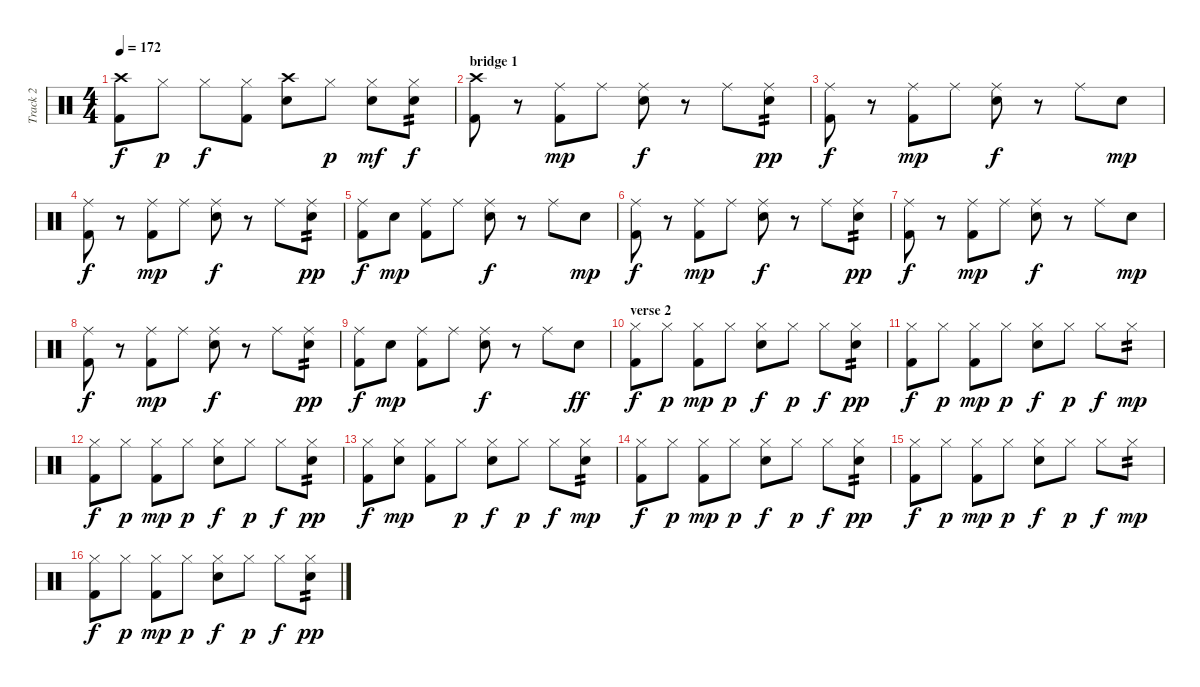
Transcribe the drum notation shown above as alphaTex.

\track ("Track 2" "Track 2") {instrument percussion}
\staff {score}
\articulation defaults
\ts (4 4)
\tempo 172
\clef neutral
\ks c
("Crash high (hit)" "Kick (hit) 2").8{dy f} "Hi-Hat (closed)".8{dy p} "Hi-Hat (closed)".8{dy f} ("Hi-Hat (closed)" "Kick (hit) 2").8 ("Crash high (hit)" "Snare (hit) 2").8 "Hi-Hat (closed)".8{dy p} ("Hi-Hat (closed)" "Snare (hit) 2").8{dy mf} ("Hi-Hat (closed)" "Snare (hit) 2").8{tp 2 dy f} |
\section ("" "bridge 1")
("Crash high (hit)" "Kick (hit) 2").8 r.8 ("Ride (middle)" "Kick (hit) 2").8{dy mp} "Ride (middle)".8 ("Ride (middle)" "Snare (hit) 2").8{dy f} r.8 "Ride (middle)".8 ("Ride (middle)" "Snare (hit) 2").8{tp 2 dy pp} |
("Ride (middle)" "Kick (hit) 2").8{dy f} r.8 ("Ride (middle)" "Kick (hit) 2").8{dy mp} "Ride (middle)".8 ("Ride (middle)" "Snare (hit) 2").8{dy f} r.8 "Ride (middle)".8 "Snare (hit) 2".8{dy mp} |
("Ride (middle)" "Kick (hit) 2").8{dy f} r.8 ("Ride (middle)" "Kick (hit) 2").8{dy mp} "Ride (middle)".8 ("Ride (middle)" "Snare (hit) 2").8{dy f} r.8 "Ride (middle)".8 ("Ride (middle)" "Snare (hit) 2").8{tp 2 dy pp} |
("Ride (middle)" "Kick (hit) 2").8{dy f} "Snare (hit) 2".8{dy mp} ("Ride (middle)" "Kick (hit) 2").8 "Ride (middle)".8 ("Ride (middle)" "Snare (hit) 2").8{dy f} r.8 "Ride (middle)".8 "Snare (hit) 2".8{dy mp} |
("Ride (middle)" "Kick (hit) 2").8{dy f} r.8 ("Ride (middle)" "Kick (hit) 2").8{dy mp} "Ride (middle)".8 ("Ride (middle)" "Snare (hit) 2").8{dy f} r.8 "Ride (middle)".8 ("Ride (middle)" "Snare (hit) 2").8{tp 2 dy pp} |
("Ride (middle)" "Kick (hit) 2").8{dy f} r.8 ("Ride (middle)" "Kick (hit) 2").8{dy mp} "Ride (middle)".8 ("Ride (middle)" "Snare (hit) 2").8{dy f} r.8 "Ride (middle)".8 "Snare (hit) 2".8{dy mp} |
("Ride (middle)" "Kick (hit) 2").8{dy f} r.8 ("Ride (middle)" "Kick (hit) 2").8{dy mp} "Ride (middle)".8 ("Ride (middle)" "Snare (hit) 2").8{dy f} r.8 "Ride (middle)".8 ("Ride (middle)" "Snare (hit) 2").8{tp 2 dy pp} |
("Ride (middle)" "Kick (hit) 2").8{dy f} "Snare (hit) 2".8{dy mp} ("Ride (middle)" "Kick (hit) 2").8 "Ride (middle)".8 ("Ride (middle)" "Snare (hit) 2").8{dy f} r.8 "Ride (middle)".8 "Snare (hit) 2".8{dy ff} |
\section ("" "verse 2")
("Hi-Hat (closed)" "Kick (hit) 2").8{dy f} "Hi-Hat (closed)".8{dy p} ("Hi-Hat (closed)" "Kick (hit) 2").8{dy mp} "Hi-Hat (closed)".8{dy p} ("Hi-Hat (closed)" "Snare (hit) 2").8{dy f} "Hi-Hat (closed)".8{dy p} "Hi-Hat (closed)".8{dy f} ("Hi-Hat (closed)" "Snare (hit) 2").8{tp 2 dy pp} |
("Hi-Hat (closed)" "Kick (hit) 2").8{dy f} "Hi-Hat (closed)".8{dy p} ("Hi-Hat (closed)" "Kick (hit) 2").8{dy mp} "Hi-Hat (closed)".8{dy p} ("Hi-Hat (closed)" "Snare (hit) 2").8{dy f} "Hi-Hat (closed)".8{dy p} "Hi-Hat (closed)".8{dy f} "Hi-Hat (closed)".8{tp 2 dy mp} |
("Hi-Hat (closed)" "Kick (hit) 2").8{dy f} "Hi-Hat (closed)".8{dy p} ("Hi-Hat (closed)" "Kick (hit) 2").8{dy mp} "Hi-Hat (closed)".8{dy p} ("Hi-Hat (closed)" "Snare (hit) 2").8{dy f} "Hi-Hat (closed)".8{dy p} "Hi-Hat (closed)".8{dy f} ("Hi-Hat (closed)" "Snare (hit) 2").8{tp 2 dy pp} |
("Hi-Hat (closed)" "Kick (hit) 2").8{dy f} ("Hi-Hat (closed)" "Snare (hit) 2").8{dy mp} ("Hi-Hat (closed)" "Kick (hit) 2").8 "Hi-Hat (closed)".8{dy p} ("Hi-Hat (closed)" "Snare (hit) 2").8{dy f} "Hi-Hat (closed)".8{dy p} "Hi-Hat (closed)".8{dy f} ("Hi-Hat (closed)" "Snare (hit) 2").8{tp 2 dy mp} |
("Hi-Hat (closed)" "Kick (hit) 2").8{dy f} "Hi-Hat (closed)".8{dy p} ("Hi-Hat (closed)" "Kick (hit) 2").8{dy mp} "Hi-Hat (closed)".8{dy p} ("Hi-Hat (closed)" "Snare (hit) 2").8{dy f} "Hi-Hat (closed)".8{dy p} "Hi-Hat (closed)".8{dy f} ("Hi-Hat (closed)" "Snare (hit) 2").8{tp 2 dy pp} |
("Hi-Hat (closed)" "Kick (hit) 2").8{dy f} "Hi-Hat (closed)".8{dy p} ("Hi-Hat (closed)" "Kick (hit) 2").8{dy mp} "Hi-Hat (closed)".8{dy p} ("Hi-Hat (closed)" "Snare (hit) 2").8{dy f} "Hi-Hat (closed)".8{dy p} "Hi-Hat (closed)".8{dy f} "Hi-Hat (closed)".8{tp 2 dy mp} |
("Hi-Hat (closed)" "Kick (hit) 2").8{dy f} "Hi-Hat (closed)".8{dy p} ("Hi-Hat (closed)" "Kick (hit) 2").8{dy mp} "Hi-Hat (closed)".8{dy p} ("Hi-Hat (closed)" "Snare (hit) 2").8{dy f} "Hi-Hat (closed)".8{dy p} "Hi-Hat (closed)".8{dy f} ("Hi-Hat (closed)" "Snare (hit) 2").8{tp 2 dy pp}
